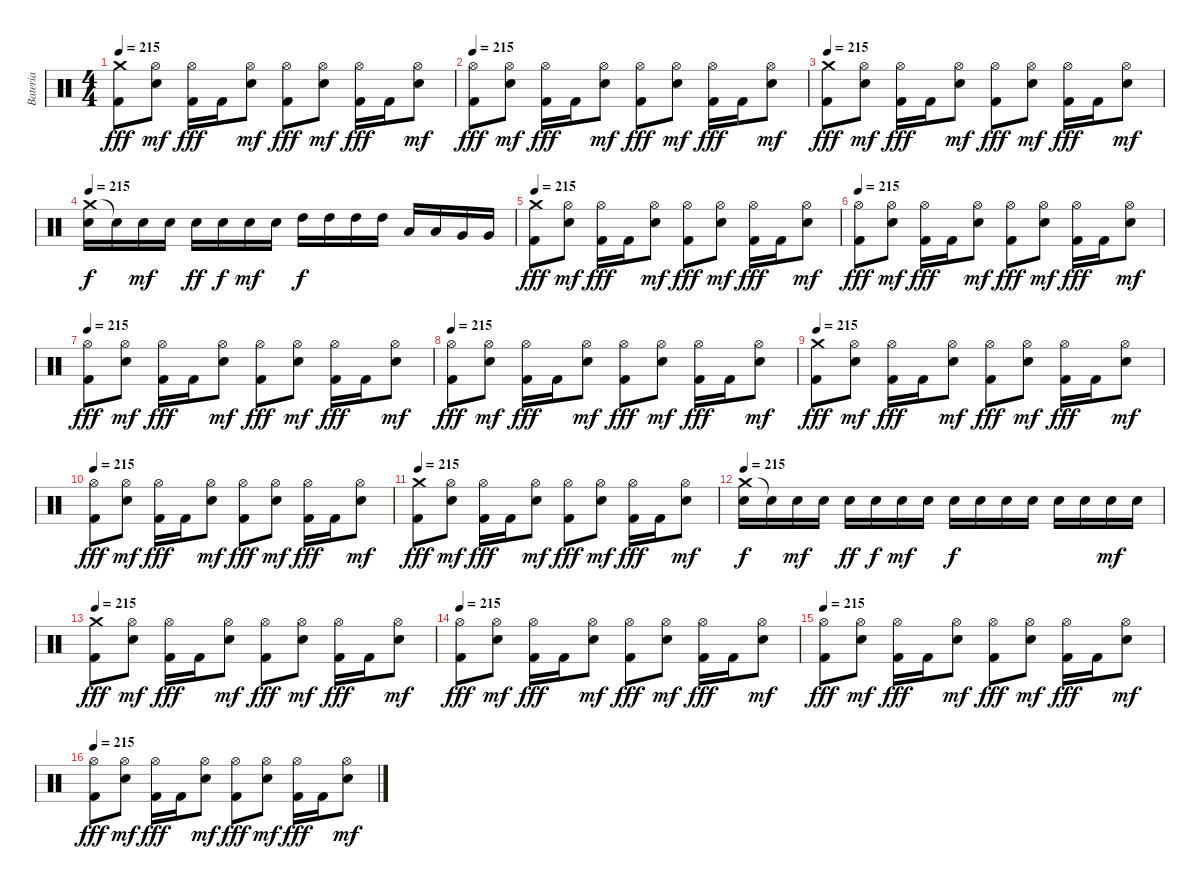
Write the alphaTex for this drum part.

\track ("Bateria" "Bateria") {instrument percussion}
\staff {score}
\articulation defaults
\ts (4 4)
\tempo 215
\clef neutral
\ks c
("Crash medium (hit)" "Kick (hit) 2").8{dy fff} ("Hi-Hat (open)" "Electric Snare (hit)").8{dy mf} ("Hi-Hat (open)" "Kick (hit) 2").16{dy fff} "Kick (hit) 2".16 ("Hi-Hat (open)" "Electric Snare (hit)").8{dy mf} ("Hi-Hat (open)" "Kick (hit) 2").8{dy fff} ("Hi-Hat (open)" "Electric Snare (hit)").8{dy mf} ("Hi-Hat (open)" "Kick (hit) 2").16{dy fff} "Kick (hit) 2".16 ("Hi-Hat (open)" "Electric Snare (hit)").8{dy mf} |
\tempo 215
("Hi-Hat (open)" "Kick (hit) 2").8{dy fff} ("Hi-Hat (open)" "Electric Snare (hit)").8{dy mf} ("Hi-Hat (open)" "Kick (hit) 2").16{dy fff} "Kick (hit) 2".16 ("Hi-Hat (open)" "Electric Snare (hit)").8{dy mf} ("Hi-Hat (open)" "Kick (hit) 2").8{dy fff} ("Hi-Hat (open)" "Electric Snare (hit)").8{dy mf} ("Hi-Hat (open)" "Kick (hit) 2").16{dy fff} "Kick (hit) 2".16 ("Hi-Hat (open)" "Electric Snare (hit)").8{dy mf} |
\tempo 215
("Crash medium (hit)" "Kick (hit) 2").8{dy fff} ("Hi-Hat (open)" "Electric Snare (hit)").8{dy mf} ("Hi-Hat (open)" "Kick (hit) 2").16{dy fff} "Kick (hit) 2".16 ("Hi-Hat (open)" "Electric Snare (hit)").8{dy mf} ("Hi-Hat (open)" "Kick (hit) 2").8{dy fff} ("Hi-Hat (open)" "Electric Snare (hit)").8{dy mf} ("Hi-Hat (open)" "Kick (hit) 2").16{dy fff} "Kick (hit) 2".16 ("Hi-Hat (open)" "Electric Snare (hit)").8{dy mf} |
\tempo 215
("Crash medium (hit)" "Electric Snare (hit)").16{dy f} "Snare (hit)"{t}.16 "Electric Snare (hit)".16{dy mf} "Electric Snare (hit)".16 "Electric Snare (hit)".16{dy ff} "Electric Snare (hit)".16{dy f} "Electric Snare (hit)".16{dy mf} "Electric Snare (hit)".16 "High Tom (hit)".16{dy f} "High Tom (hit)".16 "High Tom (hit)".16 "High Tom (hit)".16 "Low Tom (hit)".16 "Low Tom (hit)".16 "Very Low Tom (hit)".16 "Very Low Tom (hit)".16 |
\tempo 215
("Crash medium (hit)" "Kick (hit) 2").8{dy fff} ("Hi-Hat (open)" "Electric Snare (hit)").8{dy mf} ("Hi-Hat (open)" "Kick (hit) 2").16{dy fff} "Kick (hit) 2".16 ("Hi-Hat (open)" "Electric Snare (hit)").8{dy mf} ("Hi-Hat (open)" "Kick (hit) 2").8{dy fff} ("Hi-Hat (open)" "Electric Snare (hit)").8{dy mf} ("Hi-Hat (open)" "Kick (hit) 2").16{dy fff} "Kick (hit) 2".16 ("Hi-Hat (open)" "Electric Snare (hit)").8{dy mf} |
\tempo 215
("Hi-Hat (open)" "Kick (hit) 2").8{dy fff} ("Hi-Hat (open)" "Electric Snare (hit)").8{dy mf} ("Hi-Hat (open)" "Kick (hit) 2").16{dy fff} "Kick (hit) 2".16 ("Hi-Hat (open)" "Electric Snare (hit)").8{dy mf} ("Hi-Hat (open)" "Kick (hit) 2").8{dy fff} ("Hi-Hat (open)" "Electric Snare (hit)").8{dy mf} ("Hi-Hat (open)" "Kick (hit) 2").16{dy fff} "Kick (hit) 2".16 ("Hi-Hat (open)" "Electric Snare (hit)").8{dy mf} |
\tempo 215
("Hi-Hat (open)" "Kick (hit) 2").8{dy fff} ("Hi-Hat (open)" "Electric Snare (hit)").8{dy mf} ("Hi-Hat (open)" "Kick (hit) 2").16{dy fff} "Kick (hit) 2".16 ("Hi-Hat (open)" "Electric Snare (hit)").8{dy mf} ("Hi-Hat (open)" "Kick (hit) 2").8{dy fff} ("Hi-Hat (open)" "Electric Snare (hit)").8{dy mf} ("Hi-Hat (open)" "Kick (hit) 2").16{dy fff} "Kick (hit) 2".16 ("Hi-Hat (open)" "Electric Snare (hit)").8{dy mf} |
\tempo 215
("Hi-Hat (open)" "Kick (hit) 2").8{dy fff} ("Hi-Hat (open)" "Electric Snare (hit)").8{dy mf} ("Hi-Hat (open)" "Kick (hit) 2").16{dy fff} "Kick (hit) 2".16 ("Hi-Hat (open)" "Electric Snare (hit)").8{dy mf} ("Hi-Hat (open)" "Kick (hit) 2").8{dy fff} ("Hi-Hat (open)" "Electric Snare (hit)").8{dy mf} ("Hi-Hat (open)" "Kick (hit) 2").16{dy fff} "Kick (hit) 2".16 ("Hi-Hat (open)" "Electric Snare (hit)").8{dy mf} |
\tempo 215
("Crash medium (hit)" "Kick (hit) 2").8{dy fff} ("Hi-Hat (open)" "Electric Snare (hit)").8{dy mf} ("Hi-Hat (open)" "Kick (hit) 2").16{dy fff} "Kick (hit) 2".16 ("Hi-Hat (open)" "Electric Snare (hit)").8{dy mf} ("Hi-Hat (open)" "Kick (hit) 2").8{dy fff} ("Hi-Hat (open)" "Electric Snare (hit)").8{dy mf} ("Hi-Hat (open)" "Kick (hit) 2").16{dy fff} "Kick (hit) 2".16 ("Hi-Hat (open)" "Electric Snare (hit)").8{dy mf} |
\tempo 215
("Hi-Hat (open)" "Kick (hit) 2").8{dy fff} ("Hi-Hat (open)" "Electric Snare (hit)").8{dy mf} ("Hi-Hat (open)" "Kick (hit) 2").16{dy fff} "Kick (hit) 2".16 ("Hi-Hat (open)" "Electric Snare (hit)").8{dy mf} ("Hi-Hat (open)" "Kick (hit) 2").8{dy fff} ("Hi-Hat (open)" "Electric Snare (hit)").8{dy mf} ("Hi-Hat (open)" "Kick (hit) 2").16{dy fff} "Kick (hit) 2".16 ("Hi-Hat (open)" "Electric Snare (hit)").8{dy mf} |
\tempo 215
("Crash medium (hit)" "Kick (hit) 2").8{dy fff} ("Hi-Hat (open)" "Electric Snare (hit)").8{dy mf} ("Hi-Hat (open)" "Kick (hit) 2").16{dy fff} "Kick (hit) 2".16 ("Hi-Hat (open)" "Electric Snare (hit)").8{dy mf} ("Hi-Hat (open)" "Kick (hit) 2").8{dy fff} ("Hi-Hat (open)" "Electric Snare (hit)").8{dy mf} ("Hi-Hat (open)" "Kick (hit) 2").16{dy fff} "Kick (hit) 2".16 ("Hi-Hat (open)" "Electric Snare (hit)").8{dy mf} |
\tempo 215
("Crash medium (hit)" "Electric Snare (hit)").16{dy f} "Snare (hit)"{t}.16 "Electric Snare (hit)".16{dy mf} "Electric Snare (hit)".16 "Electric Snare (hit)".16{dy ff} "Electric Snare (hit)".16{dy f} "Electric Snare (hit)".16{dy mf} "Electric Snare (hit)".16 "Electric Snare (hit)".16{dy f} "Electric Snare (hit)".16 "Electric Snare (hit)".16 "Electric Snare (hit)".16 "Electric Snare (hit)".16 "Electric Snare (hit)".16 "Electric Snare (hit)".16{dy mf} "Electric Snare (hit)".16 |
\tempo 215
("Crash medium (hit)" "Kick (hit) 2").8{dy fff} ("Hi-Hat (open)" "Electric Snare (hit)").8{dy mf} ("Hi-Hat (open)" "Kick (hit) 2").16{dy fff} "Kick (hit) 2".16 ("Hi-Hat (open)" "Electric Snare (hit)").8{dy mf} ("Hi-Hat (open)" "Kick (hit) 2").8{dy fff} ("Hi-Hat (open)" "Electric Snare (hit)").8{dy mf} ("Hi-Hat (open)" "Kick (hit) 2").16{dy fff} "Kick (hit) 2".16 ("Hi-Hat (open)" "Electric Snare (hit)").8{dy mf} |
\tempo 215
("Hi-Hat (open)" "Kick (hit) 2").8{dy fff} ("Hi-Hat (open)" "Electric Snare (hit)").8{dy mf} ("Hi-Hat (open)" "Kick (hit) 2").16{dy fff} "Kick (hit) 2".16 ("Hi-Hat (open)" "Electric Snare (hit)").8{dy mf} ("Hi-Hat (open)" "Kick (hit) 2").8{dy fff} ("Hi-Hat (open)" "Electric Snare (hit)").8{dy mf} ("Hi-Hat (open)" "Kick (hit) 2").16{dy fff} "Kick (hit) 2".16 ("Hi-Hat (open)" "Electric Snare (hit)").8{dy mf} |
\tempo 215
("Hi-Hat (open)" "Kick (hit) 2").8{dy fff} ("Hi-Hat (open)" "Electric Snare (hit)").8{dy mf} ("Hi-Hat (open)" "Kick (hit) 2").16{dy fff} "Kick (hit) 2".16 ("Hi-Hat (open)" "Electric Snare (hit)").8{dy mf} ("Hi-Hat (open)" "Kick (hit) 2").8{dy fff} ("Hi-Hat (open)" "Electric Snare (hit)").8{dy mf} ("Hi-Hat (open)" "Kick (hit) 2").16{dy fff} "Kick (hit) 2".16 ("Hi-Hat (open)" "Electric Snare (hit)").8{dy mf} |
\tempo 215
("Hi-Hat (open)" "Kick (hit) 2").8{dy fff} ("Hi-Hat (open)" "Electric Snare (hit)").8{dy mf} ("Hi-Hat (open)" "Kick (hit) 2").16{dy fff} "Kick (hit) 2".16 ("Hi-Hat (open)" "Electric Snare (hit)").8{dy mf} ("Hi-Hat (open)" "Kick (hit) 2").8{dy fff} ("Hi-Hat (open)" "Electric Snare (hit)").8{dy mf} ("Hi-Hat (open)" "Kick (hit) 2").16{dy fff} "Kick (hit) 2".16 ("Hi-Hat (open)" "Electric Snare (hit)").8{dy mf}
